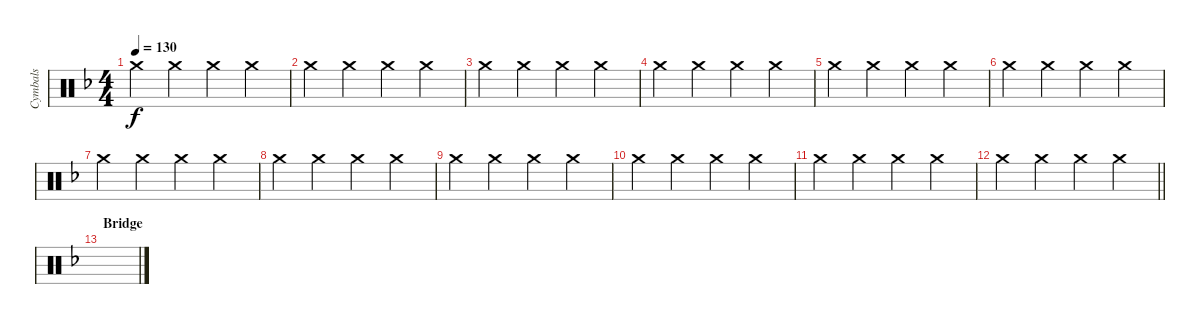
\track ("Cymbals" "Cymbals") {instrument percussion}
\staff {score}
\articulation defaults
\ts (4 4)
\tempo 130
\clef neutral
\ks f "Crash medium (hit)".4{dy f} "Crash medium (hit)".4 "Crash medium (hit)".4 "Crash medium (hit)".4
|
"Crash medium (hit)".4 "Crash medium (hit)".4 "Crash medium (hit)".4 "Crash medium (hit)".4 |
"Crash medium (hit)".4 "Crash medium (hit)".4 "Crash medium (hit)".4 "Crash medium (hit)".4 |
"Crash medium (hit)".4 "Crash medium (hit)".4 "Crash medium (hit)".4 "Crash medium (hit)".4 |
"Crash medium (hit)".4 "Crash medium (hit)".4 "Crash medium (hit)".4 "Crash medium (hit)".4 |
"Crash medium (hit)".4 "Crash medium (hit)".4 "Crash medium (hit)".4 "Crash medium (hit)".4 |
"Crash medium (hit)".4 "Crash medium (hit)".4 "Crash medium (hit)".4 "Crash medium (hit)".4 |
"Crash medium (hit)".4 "Crash medium (hit)".4 "Crash medium (hit)".4 "Crash medium (hit)".4 |
"Crash medium (hit)".4 "Crash medium (hit)".4 "Crash medium (hit)".4 "Crash medium (hit)".4 |
"Crash medium (hit)".4 "Crash medium (hit)".4 "Crash medium (hit)".4 "Crash medium (hit)".4 |
"Crash medium (hit)".4 "Crash medium (hit)".4 "Crash medium (hit)".4 "Crash medium (hit)".4 |
\barLineRight lightlight "Crash medium (hit)".4 "Crash medium (hit)".4 "Crash medium (hit)".4 "Crash medium (hit)".4
|
\section ("" "Bridge")
